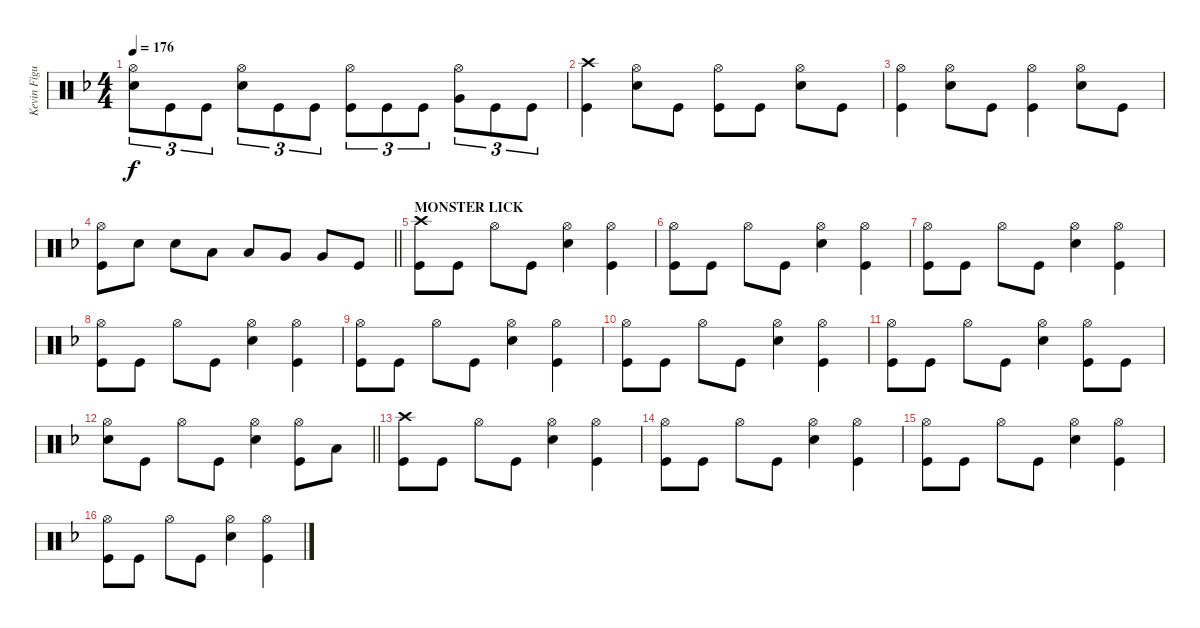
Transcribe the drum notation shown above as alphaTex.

\track ("Kevin Figueiredo - Drums" "Kevin Figu") {instrument percussion}
\staff {score}
\articulation defaults
\ts (4 4)
\tempo 176
\clef neutral
\ks f
("Hi-Hat (open)" "Snare (hit) 2").8{tu (3 2) dy f} "Kick (hit)".8{tu (3 2)} "Kick (hit)".8{tu (3 2)} ("Hi-Hat (open)" "Snare (hit) 2").8{tu (3 2)} "Kick (hit)".8{tu (3 2)} "Kick (hit)".8{tu (3 2)} ("Hi-Hat (open)" "Kick (hit)").8{tu (3 2)} "Kick (hit)".8{tu (3 2)} "Kick (hit)".8{tu (3 2)} ("Hi-Hat (open)" "Very Low Tom (hit)").8{tu (3 2)} "Kick (hit)".8{tu (3 2)} "Kick (hit)".8{tu (3 2)} |
("Crash high (hit)" "Kick (hit)").4 ("Hi-Hat (open)" "Snare (hit) 2").8 "Kick (hit)".8 ("Hi-Hat (open)" "Kick (hit)").8 "Kick (hit)".8 ("Hi-Hat (open)" "Snare (hit) 2").8 "Kick (hit)".8 |
("Hi-Hat (open)" "Kick (hit)").4 ("Hi-Hat (open)" "Snare (hit) 2").8 "Kick (hit)".8 ("Hi-Hat (open)" "Kick (hit)").4 ("Hi-Hat (open)" "Snare (hit) 2").8 "Kick (hit)".8 |
\barLineRight lightlight
("Hi-Hat (open)" "Kick (hit)").8 "Snare (hit) 2".8 "Snare (hit) 2".8 "Low Tom (hit)".8 "Low Tom (hit)".8 "Very Low Tom (hit)".8 "Very Low Tom (hit)".8 "Kick (hit)".8 |
\section ("" "MONSTER LICK")
("Crash high (hit)" "Kick (hit)").8 "Kick (hit)".8 "Hi-Hat (open)".8 "Kick (hit)".8 ("Hi-Hat (open)" "Snare (hit) 2").4 ("Hi-Hat (open)" "Kick (hit)").4 |
("Hi-Hat (open)" "Kick (hit)").8 "Kick (hit)".8 "Hi-Hat (open)".8 "Kick (hit)".8 ("Hi-Hat (open)" "Snare (hit) 2").4 ("Hi-Hat (open)" "Kick (hit)").4 |
("Hi-Hat (open)" "Kick (hit)").8 "Kick (hit)".8 "Hi-Hat (open)".8 "Kick (hit)".8 ("Hi-Hat (open)" "Snare (hit) 2").4 ("Hi-Hat (open)" "Kick (hit)").4 |
("Hi-Hat (open)" "Kick (hit)").8 "Kick (hit)".8 "Hi-Hat (open)".8 "Kick (hit)".8 ("Hi-Hat (open)" "Snare (hit) 2").4 ("Hi-Hat (open)" "Kick (hit)").4 |
("Hi-Hat (open)" "Kick (hit)").8 "Kick (hit)".8 "Hi-Hat (open)".8 "Kick (hit)".8 ("Hi-Hat (open)" "Snare (hit) 2").4 ("Hi-Hat (open)" "Kick (hit)").4 |
("Hi-Hat (open)" "Kick (hit)").8 "Kick (hit)".8 "Hi-Hat (open)".8 "Kick (hit)".8 ("Hi-Hat (open)" "Snare (hit) 2").4 ("Hi-Hat (open)" "Kick (hit)").4 |
("Hi-Hat (open)" "Kick (hit)").8 "Kick (hit)".8 "Hi-Hat (open)".8 "Kick (hit)".8 ("Hi-Hat (open)" "Snare (hit) 2").4 ("Hi-Hat (open)" "Kick (hit)").8 "Kick (hit)".8 |
\barLineRight lightlight
("Hi-Hat (open)" "Snare (hit) 2").8 "Kick (hit)".8 "Hi-Hat (open)".8 "Kick (hit)".8 ("Hi-Hat (open)" "Snare (hit) 2").4 ("Hi-Hat (open)" "Kick (hit)").8 "Low Floor Tom (hit)".8 |
("Crash high (hit)" "Kick (hit)").8 "Kick (hit)".8 "Hi-Hat (open)".8 "Kick (hit)".8 ("Hi-Hat (open)" "Snare (hit) 2").4 ("Hi-Hat (open)" "Kick (hit)").4 |
("Hi-Hat (open)" "Kick (hit)").8 "Kick (hit)".8 "Hi-Hat (open)".8 "Kick (hit)".8 ("Hi-Hat (open)" "Snare (hit) 2").4 ("Hi-Hat (open)" "Kick (hit)").4 |
("Hi-Hat (open)" "Kick (hit)").8 "Kick (hit)".8 "Hi-Hat (open)".8 "Kick (hit)".8 ("Hi-Hat (open)" "Snare (hit) 2").4 ("Hi-Hat (open)" "Kick (hit)").4 |
("Hi-Hat (open)" "Kick (hit)").8 "Kick (hit)".8 "Hi-Hat (open)".8 "Kick (hit)".8 ("Hi-Hat (open)" "Snare (hit) 2").4 ("Hi-Hat (open)" "Kick (hit)").4
